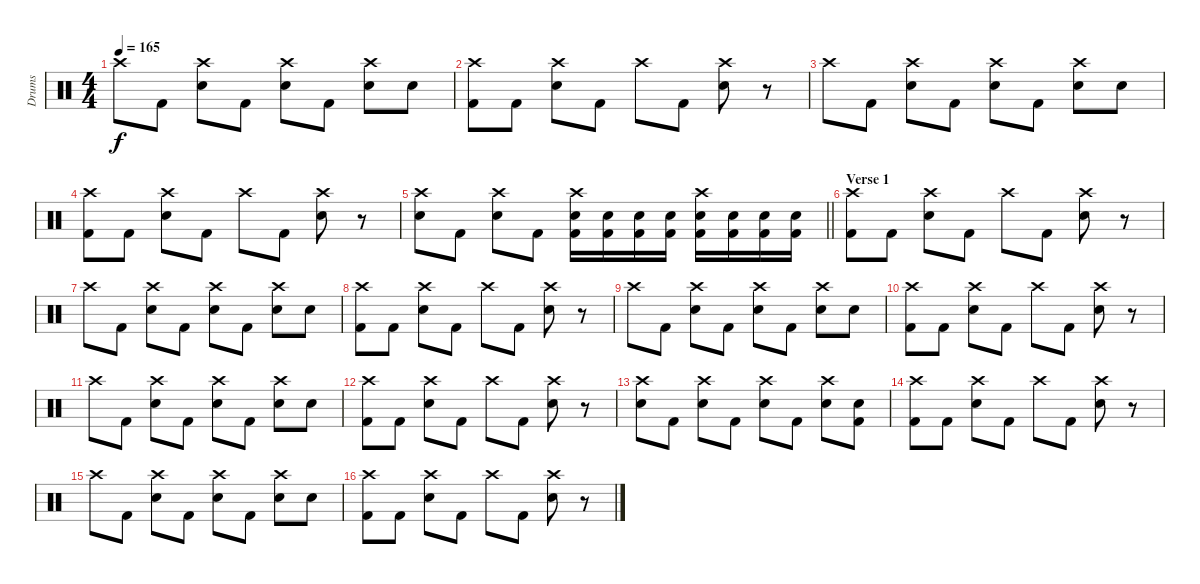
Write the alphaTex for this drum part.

\track ("Drums" "Drums") {instrument percussion}
\staff {score}
\articulation defaults
\ts (4 4)
\tempo 165
\clef neutral
\ks c "Crash high (hit)".8{dy f} "Kick (hit) 2".8
("Crash high (hit)" "Snare (hit) 2").8 "Kick (hit) 2".8 ("Crash high (hit)" "Snare (hit) 2").8 "Kick (hit) 2".8 ("Crash high (hit)" "Snare (hit) 2").8 "Snare (hit) 2".8 |
("Crash high (hit)" "Kick (hit) 2").8 "Kick (hit) 2".8 ("Crash high (hit)" "Snare (hit) 2").8 "Kick (hit) 2".8 "Crash high (hit)".8 "Kick (hit) 2".8 ("Crash high (hit)" "Snare (hit) 2").8 r.8 |
"Crash high (hit)".8 "Kick (hit) 2".8 ("Crash high (hit)" "Snare (hit) 2").8 "Kick (hit) 2".8 ("Crash high (hit)" "Snare (hit) 2").8 "Kick (hit) 2".8 ("Crash high (hit)" "Snare (hit) 2").8 "Snare (hit) 2".8 |
("Crash high (hit)" "Kick (hit) 2").8 "Kick (hit) 2".8 ("Crash high (hit)" "Snare (hit) 2").8 "Kick (hit) 2".8 "Crash high (hit)".8 "Kick (hit) 2".8 ("Crash high (hit)" "Snare (hit) 2").8 r.8 |
\barLineRight lightlight
("Crash high (hit)" "Snare (hit) 2").8 "Kick (hit) 2".8 ("Crash high (hit)" "Snare (hit) 2").8 "Kick (hit) 2".8 ("Crash high (hit)" "Snare (hit) 2" "Kick (hit) 2").16 ("Snare (hit) 2" "Kick (hit) 2").16 ("Snare (hit) 2" "Kick (hit) 2").16 ("Snare (hit) 2" "Kick (hit) 2").16 ("Crash high (hit)" "Snare (hit) 2" "Kick (hit) 2").16 ("Snare (hit) 2" "Kick (hit) 2").16 ("Snare (hit) 2" "Kick (hit) 2").16 ("Snare (hit) 2" "Kick (hit) 2").16 |
\section ("" "Verse 1")
("Crash high (hit)" "Kick (hit) 2").8 "Kick (hit) 2".8 ("Crash high (hit)" "Snare (hit) 2").8 "Kick (hit) 2".8 "Crash high (hit)".8 "Kick (hit) 2".8 ("Crash high (hit)" "Snare (hit) 2").8 r.8 |
"Crash high (hit)".8 "Kick (hit) 2".8 ("Crash high (hit)" "Snare (hit) 2").8 "Kick (hit) 2".8 ("Crash high (hit)" "Snare (hit) 2").8 "Kick (hit) 2".8 ("Crash high (hit)" "Snare (hit) 2").8 "Snare (hit) 2".8 |
("Crash high (hit)" "Kick (hit) 2").8 "Kick (hit) 2".8 ("Crash high (hit)" "Snare (hit) 2").8 "Kick (hit) 2".8 "Crash high (hit)".8 "Kick (hit) 2".8 ("Crash high (hit)" "Snare (hit) 2").8 r.8 |
"Crash high (hit)".8 "Kick (hit) 2".8 ("Crash high (hit)" "Snare (hit) 2").8 "Kick (hit) 2".8 ("Crash high (hit)" "Snare (hit) 2").8 "Kick (hit) 2".8 ("Crash high (hit)" "Snare (hit) 2").8 "Snare (hit) 2".8 |
("Crash high (hit)" "Kick (hit) 2").8 "Kick (hit) 2".8 ("Crash high (hit)" "Snare (hit) 2").8 "Kick (hit) 2".8 "Crash high (hit)".8 "Kick (hit) 2".8 ("Crash high (hit)" "Snare (hit) 2").8 r.8 |
"Crash high (hit)".8 "Kick (hit) 2".8 ("Crash high (hit)" "Snare (hit) 2").8 "Kick (hit) 2".8 ("Crash high (hit)" "Snare (hit) 2").8 "Kick (hit) 2".8 ("Crash high (hit)" "Snare (hit) 2").8 "Snare (hit) 2".8 |
("Crash high (hit)" "Kick (hit) 2").8 "Kick (hit) 2".8 ("Crash high (hit)" "Snare (hit) 2").8 "Kick (hit) 2".8 "Crash high (hit)".8 "Kick (hit) 2".8 ("Crash high (hit)" "Snare (hit) 2").8 r.8 |
("Crash high (hit)" "Snare (hit) 2").8 "Kick (hit) 2".8 ("Crash high (hit)" "Snare (hit) 2").8 "Kick (hit) 2".8 ("Crash high (hit)" "Snare (hit) 2").8 "Kick (hit) 2".8 ("Crash high (hit)" "Snare (hit) 2").8 ("Snare (hit) 2" "Kick (hit) 2").8 |
("Crash high (hit)" "Kick (hit) 2").8 "Kick (hit) 2".8 ("Crash high (hit)" "Snare (hit) 2").8 "Kick (hit) 2".8 "Crash high (hit)".8 "Kick (hit) 2".8 ("Crash high (hit)" "Snare (hit) 2").8 r.8 |
"Crash high (hit)".8 "Kick (hit) 2".8 ("Crash high (hit)" "Snare (hit) 2").8 "Kick (hit) 2".8 ("Crash high (hit)" "Snare (hit) 2").8 "Kick (hit) 2".8 ("Crash high (hit)" "Snare (hit) 2").8 "Snare (hit) 2".8 |
("Crash high (hit)" "Kick (hit) 2").8 "Kick (hit) 2".8 ("Crash high (hit)" "Snare (hit) 2").8 "Kick (hit) 2".8 "Crash high (hit)".8 "Kick (hit) 2".8 ("Crash high (hit)" "Snare (hit) 2").8 r.8
